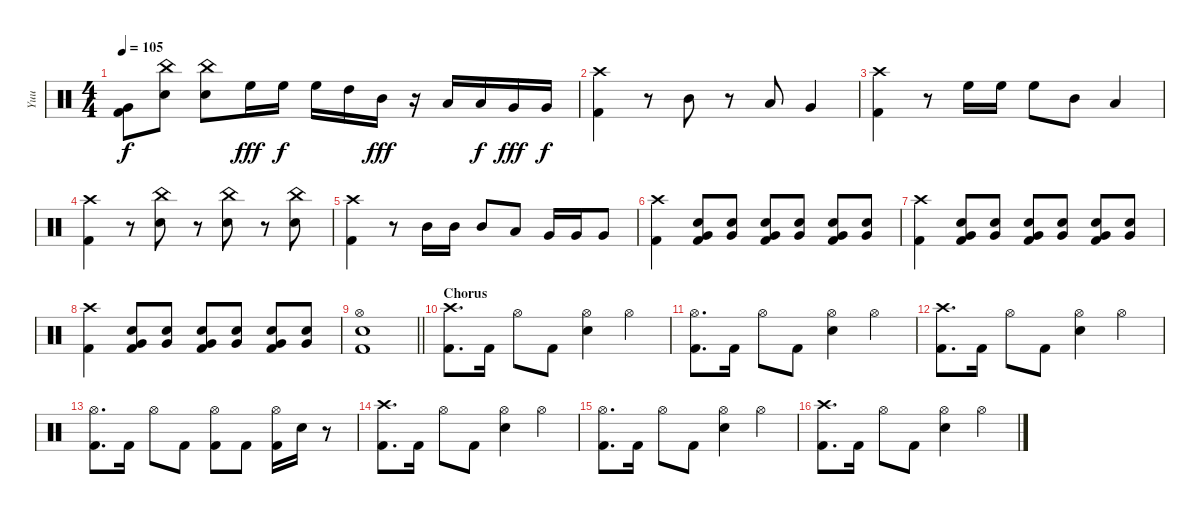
\track ("Yuu" "Yuu") {instrument percussion}
\staff {score}
\articulation defaults
\ts (4 4)
\tempo 105
\clef neutral
\ks c
("Very Low Tom (hit)" "Kick (hit) 2").8{dy f} ("China (hit)" "Electric Snare (hit)").8 ("China (hit)" "Electric Snare (hit)").8 "High Floor Tom (hit)".16{dy fff} "High Floor Tom (hit)".16{dy f} "High Floor Tom (hit)".16 "High Tom (hit)".16 "Mid Tom (hit)".16{dy fff} r.16 "Low Tom (hit)".16 "Low Tom (hit)".16{dy f} "Very Low Tom (hit)".16{dy fff} "Very Low Tom (hit)".16{dy f} |
("Crash high (hit)" "Kick (hit) 2").4 r.8 "Mid Tom (hit)".8 r.8 "Low Tom (hit)".8 "Very Low Tom (hit)".4 |
("Crash high (hit)" "Kick (hit) 2").4 r.8 "High Floor Tom (hit)".16 "High Floor Tom (hit)".16 "High Floor Tom (hit)".8 "Mid Tom (hit)".8 "Low Tom (hit)".4 |
("Crash high (hit)" "Kick (hit) 2").4 r.8 ("China (hit)" "Electric Snare (hit)").8 r.8 ("China (hit)" "Electric Snare (hit)").8 r.8 ("China (hit)" "Electric Snare (hit)").8 |
("Crash high (hit)" "Kick (hit) 2").4 r.8 "Mid Tom (hit)".16 "Mid Tom (hit)".16 "Mid Tom (hit)".8 "Low Tom (hit)".8 "Very Low Tom (hit)".16 "Very Low Tom (hit)".16 "Very Low Tom (hit)".8 |
("Crash high (hit)" "Kick (hit) 2").4 ("Electric Snare (hit)" "Very Low Tom (hit)" "Kick (hit) 2").8 ("Electric Snare (hit)" "Very Low Tom (hit)").8 ("Electric Snare (hit)" "Very Low Tom (hit)" "Kick (hit) 2").8 ("Electric Snare (hit)" "Very Low Tom (hit)").8 ("Electric Snare (hit)" "Very Low Tom (hit)" "Kick (hit) 2").8 ("Electric Snare (hit)" "Very Low Tom (hit)").8 |
("Crash high (hit)" "Kick (hit) 2").4 ("Electric Snare (hit)" "Very Low Tom (hit)" "Kick (hit) 2").8 ("Electric Snare (hit)" "Very Low Tom (hit)").8 ("Electric Snare (hit)" "Very Low Tom (hit)" "Kick (hit) 2").8 ("Electric Snare (hit)" "Very Low Tom (hit)").8 ("Electric Snare (hit)" "Very Low Tom (hit)" "Kick (hit) 2").8 ("Electric Snare (hit)" "Very Low Tom (hit)").8 |
("Crash high (hit)" "Kick (hit) 2").4 ("Electric Snare (hit)" "Very Low Tom (hit)" "Kick (hit) 2").8 ("Electric Snare (hit)" "Very Low Tom (hit)").8 ("Electric Snare (hit)" "Very Low Tom (hit)" "Kick (hit) 2").8 ("Electric Snare (hit)" "Very Low Tom (hit)").8 ("Electric Snare (hit)" "Very Low Tom (hit)" "Kick (hit) 2").8 ("Electric Snare (hit)" "Very Low Tom (hit)").8 |
\barLineRight lightlight
("Hi-Hat (open)" "Electric Snare (hit)" "Kick (hit) 2").1 |
\section ("" "Chorus")
("Crash high (hit)" "Kick (hit) 2").8{d} "Kick (hit) 2".16 "Hi-Hat (open)".8 "Kick (hit) 2".8 ("Hi-Hat (open)" "Electric Snare (hit)").4 "Hi-Hat (open)".4 |
("Hi-Hat (open)" "Kick (hit) 2").8{d} "Kick (hit) 2".16 "Hi-Hat (open)".8 "Kick (hit) 2".8 ("Hi-Hat (open)" "Electric Snare (hit)").4 "Hi-Hat (open)".4 |
("Crash high (hit)" "Kick (hit) 2").8{d} "Kick (hit) 2".16 "Hi-Hat (open)".8 "Kick (hit) 2".8 ("Hi-Hat (open)" "Electric Snare (hit)").4 "Hi-Hat (open)".4 |
("Hi-Hat (open)" "Kick (hit) 2").8{d} "Kick (hit) 2".16 "Hi-Hat (open)".8 "Kick (hit) 2".8 ("Hi-Hat (open)" "Kick (hit) 2").8 "Kick (hit) 2".8 ("Hi-Hat (open)" "Kick (hit) 2").16 "Electric Snare (hit)".16 r.8 |
("Crash high (hit)" "Kick (hit) 2").8{d} "Kick (hit) 2".16 "Hi-Hat (open)".8 "Kick (hit) 2".8 ("Hi-Hat (open)" "Electric Snare (hit)").4 "Hi-Hat (open)".4 |
("Hi-Hat (open)" "Kick (hit) 2").8{d} "Kick (hit) 2".16 "Hi-Hat (open)".8 "Kick (hit) 2".8 ("Hi-Hat (open)" "Electric Snare (hit)").4 "Hi-Hat (open)".4 |
("Crash high (hit)" "Kick (hit) 2").8{d} "Kick (hit) 2".16 "Hi-Hat (open)".8 "Kick (hit) 2".8 ("Hi-Hat (open)" "Electric Snare (hit)").4 "Hi-Hat (open)".4
